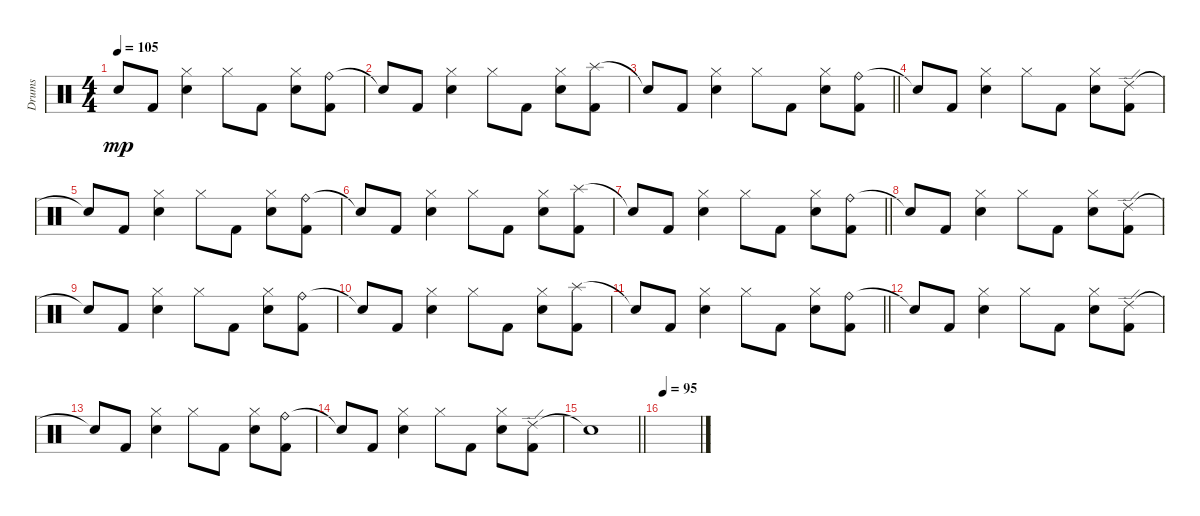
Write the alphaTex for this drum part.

\track ("Drums" "Drums") {instrument percussion}
\staff {score}
\articulation defaults
\ts (4 4)
\tempo 105
\clef neutral
\ks c "Snare (hit)"{t}.8{dy mp} "Kick (hit) 2".8
("Hi-Hat (closed)" "Electric Snare (hit)").4 "Hi-Hat (closed)".8 "Kick (hit) 2".8 ("Hi-Hat (closed)" "Electric Snare (hit)").8 ("Ride (bell)" "Kick (hit) 2").8 |
"Snare (hit)"{t}.8 "Kick (hit) 2".8 ("Hi-Hat (closed)" "Electric Snare (hit)").4 "Hi-Hat (closed)".8 "Kick (hit) 2".8 ("Hi-Hat (closed)" "Electric Snare (hit)").8 ("Splash (hit)" "Kick (hit) 2").8 |
\barLineRight lightlight "Snare (hit)"{t}.8 "Kick (hit) 2".8
("Hi-Hat (closed)" "Electric Snare (hit)").4 "Hi-Hat (closed)".8 "Kick (hit) 2".8 ("Hi-Hat (closed)" "Electric Snare (hit)").8 ("Ride (bell)" "Kick (hit) 2").8 |
\section ("" "")
"Snare (hit)"{t}.8 "Kick (hit) 2".8 ("Hi-Hat (closed)" "Electric Snare (hit)").4 "Hi-Hat (closed)".8 "Kick (hit) 2".8 ("Hi-Hat (closed)" "Electric Snare (hit)").8 ("Ride (edge) 2" "Kick (hit) 2").8 |
"Snare (hit)"{t}.8 "Kick (hit) 2".8 ("Hi-Hat (closed)" "Electric Snare (hit)").4 "Hi-Hat (closed)".8 "Kick (hit) 2".8 ("Hi-Hat (closed)" "Electric Snare (hit)").8 ("Ride (bell)" "Kick (hit) 2").8 |
"Snare (hit)"{t}.8 "Kick (hit) 2".8 ("Hi-Hat (closed)" "Electric Snare (hit)").4 "Hi-Hat (closed)".8 "Kick (hit) 2".8 ("Hi-Hat (closed)" "Electric Snare (hit)").8 ("Splash (hit)" "Kick (hit) 2").8 |
\barLineRight lightlight "Snare (hit)"{t}.8 "Kick (hit) 2".8
("Hi-Hat (closed)" "Electric Snare (hit)").4 "Hi-Hat (closed)".8 "Kick (hit) 2".8 ("Hi-Hat (closed)" "Electric Snare (hit)").8 ("Ride (bell)" "Kick (hit) 2").8 |
\section ("" "")
"Snare (hit)"{t}.8 "Kick (hit) 2".8 ("Hi-Hat (closed)" "Electric Snare (hit)").4 "Hi-Hat (closed)".8 "Kick (hit) 2".8 ("Hi-Hat (closed)" "Electric Snare (hit)").8 ("Ride (edge) 2" "Kick (hit) 2").8 |
"Snare (hit)"{t}.8 "Kick (hit) 2".8 ("Hi-Hat (closed)" "Electric Snare (hit)").4 "Hi-Hat (closed)".8 "Kick (hit) 2".8 ("Hi-Hat (closed)" "Electric Snare (hit)").8 ("Ride (bell)" "Kick (hit) 2").8 |
"Snare (hit)"{t}.8 "Kick (hit) 2".8 ("Hi-Hat (closed)" "Electric Snare (hit)").4 "Hi-Hat (closed)".8 "Kick (hit) 2".8 ("Hi-Hat (closed)" "Electric Snare (hit)").8 ("Splash (hit)" "Kick (hit) 2").8 |
\barLineRight lightlight "Snare (hit)"{t}.8 "Kick (hit) 2".8
("Hi-Hat (closed)" "Electric Snare (hit)").4 "Hi-Hat (closed)".8 "Kick (hit) 2".8 ("Hi-Hat (closed)" "Electric Snare (hit)").8 ("Ride (bell)" "Kick (hit) 2").8 |
\section ("" "")
"Snare (hit)"{t}.8 "Kick (hit) 2".8 ("Hi-Hat (closed)" "Electric Snare (hit)").4 "Hi-Hat (closed)".8 "Kick (hit) 2".8 ("Hi-Hat (closed)" "Electric Snare (hit)").8 ("Ride (edge) 2" "Kick (hit) 2").8 |
"Snare (hit)"{t}.8 "Kick (hit) 2".8 ("Hi-Hat (closed)" "Electric Snare (hit)").4 "Hi-Hat (closed)".8 "Kick (hit) 2".8 ("Hi-Hat (closed)" "Electric Snare (hit)").8 ("Ride (bell)" "Kick (hit) 2").8 |
"Snare (hit)"{t}.8 "Kick (hit) 2".8 ("Hi-Hat (closed)" "Electric Snare (hit)").4 "Hi-Hat (closed)".8 "Kick (hit) 2".8 ("Hi-Hat (closed)" "Electric Snare (hit)").8 ("Ride (edge) 2" "Kick (hit) 2").8 |
\barLineRight lightlight "Snare (hit)"{t}.1
|
\section ("" "")
\tempo 95
